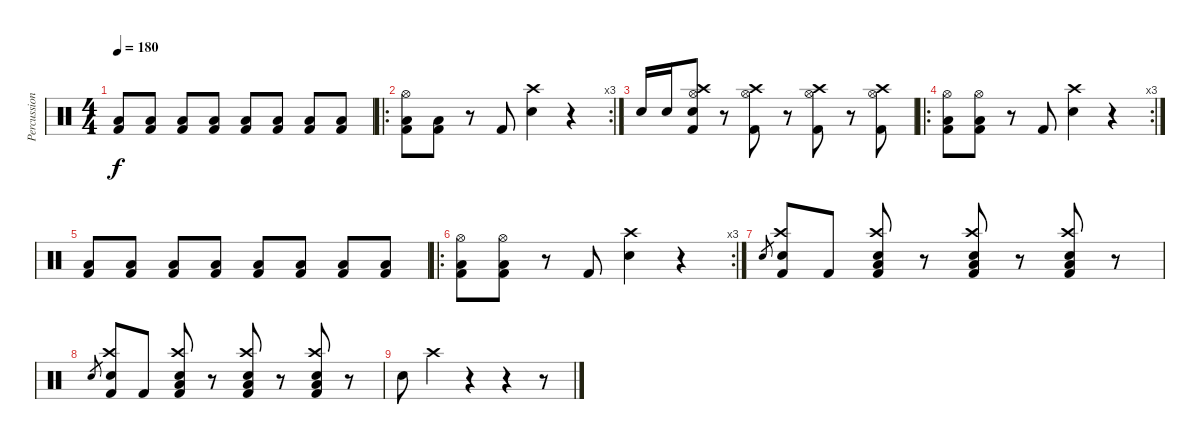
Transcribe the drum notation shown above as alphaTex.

\track ("Percussions" "Percussion") {instrument percussion}
\staff {score}
\articulation defaults
\ts (4 4)
\tempo 180
\clef neutral
\ks c
("Kick (hit) 2" "Low Floor Tom (hit)").8{dy f} ("Kick (hit) 2" "Low Floor Tom (hit)").8 ("Kick (hit) 2" "Low Floor Tom (hit)").8 ("Kick (hit) 2" "Low Floor Tom (hit)").8 ("Kick (hit) 2" "Low Floor Tom (hit)").8 ("Kick (hit) 2" "Low Floor Tom (hit)").8 ("Kick (hit) 2" "Low Floor Tom (hit)").8 ("Kick (hit) 2" "Low Floor Tom (hit)").8 |
\ro
\rc 3
("Hi-Hat (open)" "Kick (hit) 2" "Low Floor Tom (hit)").8 ("Kick (hit) 2" "Low Floor Tom (hit)").8 r.8 "Kick (hit) 2".8 ("Crash high (hit)" "Snare (hit) 2").4 r.4 |
"Snare (hit) 2".16 "Snare (hit) 2".16 ("Hi-Hat (open)" "Crash high (hit)" "Kick (hit) 2" "Snare (hit) 2").8 r.8 ("Hi-Hat (open)" "Crash high (hit)" "Kick (hit) 2").8 r.8 ("Hi-Hat (open)" "Crash high (hit)" "Kick (hit) 2").8 r.8 ("Hi-Hat (open)" "Crash high (hit)" "Kick (hit) 2").8 |
\ro
\rc 3
("Hi-Hat (open)" "Kick (hit) 2" "Low Floor Tom (hit)").8 ("Hi-Hat (open)" "Kick (hit) 2" "Low Floor Tom (hit)").8 r.8 "Kick (hit) 2".8 ("Crash high (hit)" "Snare (hit) 2").4 r.4 |
("Kick (hit) 2" "Low Floor Tom (hit)").8 ("Kick (hit) 2" "Low Floor Tom (hit)").8 ("Kick (hit) 2" "Low Floor Tom (hit)").8 ("Kick (hit) 2" "Low Floor Tom (hit)").8 ("Kick (hit) 2" "Low Floor Tom (hit)").8 ("Kick (hit) 2" "Low Floor Tom (hit)").8 ("Kick (hit) 2" "Low Floor Tom (hit)").8 ("Kick (hit) 2" "Low Floor Tom (hit)").8 |
\ro
\rc 3
("Hi-Hat (open)" "Kick (hit) 2" "Low Floor Tom (hit)").8 ("Hi-Hat (open)" "Kick (hit) 2" "Low Floor Tom (hit)").8 r.8 "Kick (hit) 2".8 ("Crash high (hit)" "Snare (hit) 2").4 r.4 |
"Snare (hit) 2".8{gr} ("Snare (hit) 2" "Kick (hit) 2" "Crash high (hit)").8 "Kick (hit) 2".8 ("Kick (hit) 2" "Snare (hit) 2" "Low Floor Tom (hit)" "Crash high (hit)").8 r.8 ("Kick (hit) 2" "Snare (hit) 2" "Low Floor Tom (hit)" "Crash high (hit)").8 r.8 ("Kick (hit) 2" "Snare (hit) 2" "Low Floor Tom (hit)" "Crash high (hit)").8 r.8 |
"Snare (hit) 2".8{gr} ("Snare (hit) 2" "Kick (hit) 2" "Crash high (hit)").8 "Kick (hit) 2".8 ("Kick (hit) 2" "Snare (hit) 2" "Low Floor Tom (hit)" "Crash high (hit)").8 r.8 ("Kick (hit) 2" "Snare (hit) 2" "Low Floor Tom (hit)" "Crash high (hit)").8 r.8 ("Kick (hit) 2" "Snare (hit) 2" "Low Floor Tom (hit)" "Crash high (hit)").8 r.8 |
"Snare (hit) 2".8 "Crash high (hit)".4 r.4 r.4 r.8
